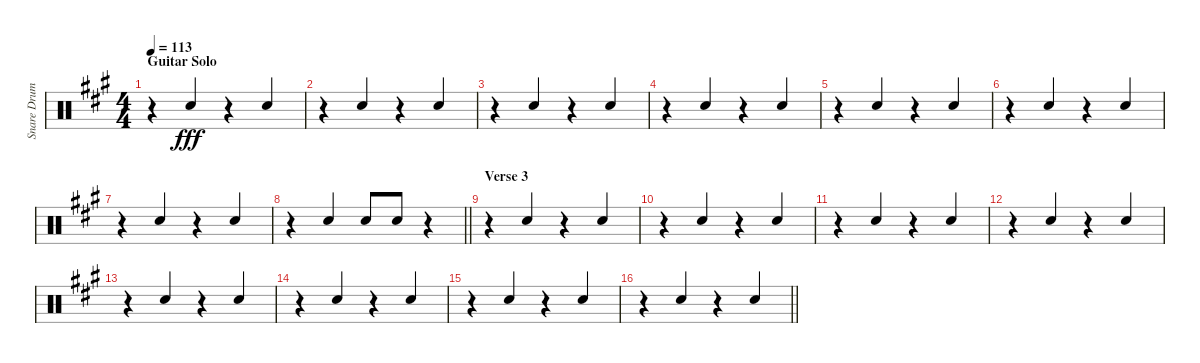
\track ("Snare Drum" "Snare Drum") {instrument percussion}
\staff {score}
\articulation defaults
\ts (4 4)
\section ("" "Guitar Solo")
\tempo 113
\clef neutral
\ks f#minor
r.4{dy fff} "Electric Snare (hit)".4{beam Up} r.4 "Electric Snare (hit)".4{beam Up} |
r.4 "Electric Snare (hit)".4{beam Up} r.4 "Electric Snare (hit)".4{beam Up} |
r.4 "Electric Snare (hit)".4{beam Up} r.4 "Electric Snare (hit)".4{beam Up} |
r.4 "Electric Snare (hit)".4{beam Up} r.4 "Electric Snare (hit)".4{beam Up} |
r.4 "Electric Snare (hit)".4{beam Up} r.4 "Electric Snare (hit)".4{beam Up} |
r.4 "Electric Snare (hit)".4{beam Up} r.4 "Electric Snare (hit)".4{beam Up} |
r.4 "Electric Snare (hit)".4{beam Up} r.4 "Electric Snare (hit)".4{beam Up} |
\barLineRight lightlight
r.4 "Electric Snare (hit)".4{beam Up} "Electric Snare (hit)".8{beam Up} "Electric Snare (hit)".8{beam Up} r.4 |
\section ("" "Verse 3")
r.4 "Electric Snare (hit)".4{beam Up} r.4 "Electric Snare (hit)".4{beam Up} |
r.4 "Electric Snare (hit)".4{beam Up} r.4 "Electric Snare (hit)".4{beam Up} |
r.4 "Electric Snare (hit)".4{beam Up} r.4 "Electric Snare (hit)".4{beam Up} |
r.4 "Electric Snare (hit)".4{beam Up} r.4 "Electric Snare (hit)".4{beam Up} |
r.4 "Electric Snare (hit)".4{beam Up} r.4 "Electric Snare (hit)".4{beam Up} |
r.4 "Electric Snare (hit)".4{beam Up} r.4 "Electric Snare (hit)".4{beam Up} |
r.4 "Electric Snare (hit)".4{beam Up} r.4 "Electric Snare (hit)".4{beam Up} |
\barLineRight lightlight
r.4 "Electric Snare (hit)".4{beam Up} r.4 "Electric Snare (hit)".4{beam Up}
